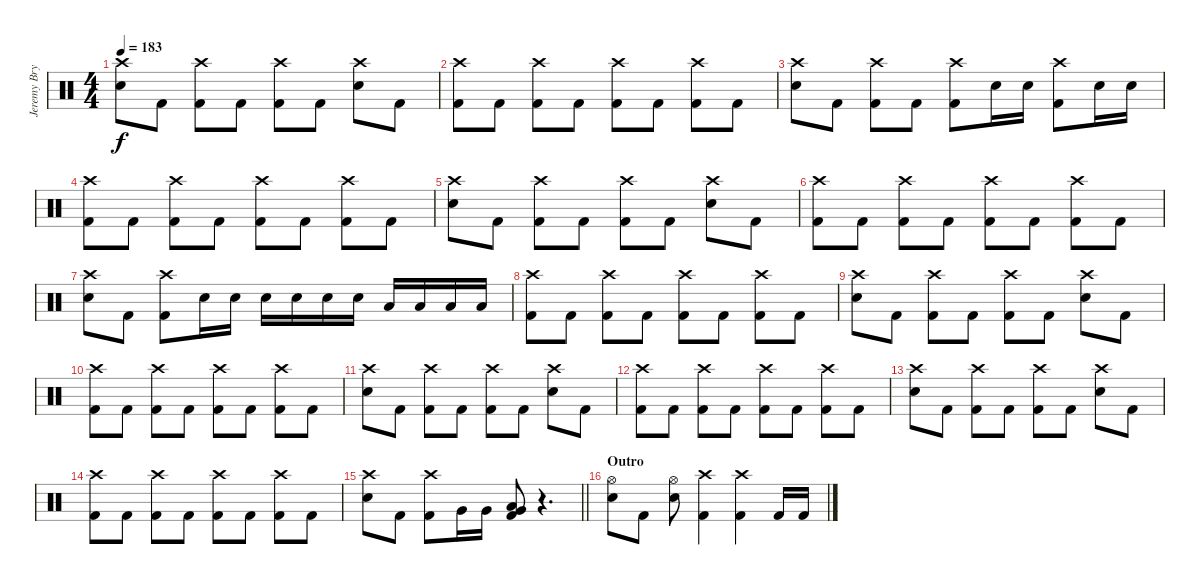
\track ("Jeremy Bryan - Drums" "Jeremy Bry") {instrument percussion}
\staff {score}
\articulation defaults
\ts (4 4)
\tempo 183
\clef neutral
\ks c
("Crash high (hit)" "Electric Snare (hit)").8{dy f} "Kick (hit) 2".8 ("Crash high (hit)" "Kick (hit) 2").8 "Kick (hit) 2".8 ("Crash high (hit)" "Kick (hit) 2").8 "Kick (hit) 2".8 ("Crash high (hit)" "Electric Snare (hit)").8 "Kick (hit) 2".8 |
("Crash high (hit)" "Kick (hit) 2").8 "Kick (hit) 2".8 ("Crash high (hit)" "Kick (hit) 2").8 "Kick (hit) 2".8 ("Crash high (hit)" "Kick (hit) 2").8 "Kick (hit) 2".8 ("Crash high (hit)" "Kick (hit) 2").8 "Kick (hit) 2".8 |
("Crash high (hit)" "Electric Snare (hit)").8 "Kick (hit) 2".8 ("Crash high (hit)" "Kick (hit) 2").8 "Kick (hit) 2".8 ("Crash high (hit)" "Kick (hit) 2").8 "Electric Snare (hit)".16 "Electric Snare (hit)".16 ("Crash high (hit)" "Kick (hit) 2").8 "Electric Snare (hit)".16 "Electric Snare (hit)".16 |
("Crash high (hit)" "Kick (hit) 2").8 "Kick (hit) 2".8 ("Crash high (hit)" "Kick (hit) 2").8 "Kick (hit) 2".8 ("Crash high (hit)" "Kick (hit) 2").8 "Kick (hit) 2".8 ("Crash high (hit)" "Kick (hit) 2").8 "Kick (hit) 2".8 |
("Crash high (hit)" "Electric Snare (hit)").8 "Kick (hit) 2".8 ("Crash high (hit)" "Kick (hit) 2").8 "Kick (hit) 2".8 ("Crash high (hit)" "Kick (hit) 2").8 "Kick (hit) 2".8 ("Crash high (hit)" "Electric Snare (hit)").8 "Kick (hit) 2".8 |
("Crash high (hit)" "Kick (hit) 2").8 "Kick (hit) 2".8 ("Crash high (hit)" "Kick (hit) 2").8 "Kick (hit) 2".8 ("Crash high (hit)" "Kick (hit) 2").8 "Kick (hit) 2".8 ("Crash high (hit)" "Kick (hit) 2").8 "Kick (hit) 2".8 |
("Crash high (hit)" "Electric Snare (hit)").8 "Kick (hit) 2".8 ("Crash high (hit)" "Kick (hit) 2").8 "Electric Snare (hit)".16 "Electric Snare (hit)".16 "Electric Snare (hit)".16 "Electric Snare (hit)".16 "Electric Snare (hit)".16 "Electric Snare (hit)".16 "Low Tom (hit)".16 "Low Tom (hit)".16 "Low Tom (hit)".16 "Low Tom (hit)".16 |
("Crash high (hit)" "Kick (hit) 2").8 "Kick (hit) 2".8 ("Crash high (hit)" "Kick (hit) 2").8 "Kick (hit) 2".8 ("Crash high (hit)" "Kick (hit) 2").8 "Kick (hit) 2".8 ("Crash high (hit)" "Kick (hit) 2").8 "Kick (hit) 2".8 |
("Crash high (hit)" "Electric Snare (hit)").8 "Kick (hit) 2".8 ("Crash high (hit)" "Kick (hit) 2").8 "Kick (hit) 2".8 ("Crash high (hit)" "Kick (hit) 2").8 "Kick (hit) 2".8 ("Crash high (hit)" "Electric Snare (hit)").8 "Kick (hit) 2".8 |
("Crash high (hit)" "Kick (hit) 2").8 "Kick (hit) 2".8 ("Crash high (hit)" "Kick (hit) 2").8 "Kick (hit) 2".8 ("Crash high (hit)" "Kick (hit) 2").8 "Kick (hit) 2".8 ("Crash high (hit)" "Kick (hit) 2").8 "Kick (hit) 2".8 |
("Crash high (hit)" "Electric Snare (hit)").8 "Kick (hit) 2".8 ("Crash high (hit)" "Kick (hit) 2").8 "Kick (hit) 2".8 ("Crash high (hit)" "Kick (hit) 2").8 "Kick (hit) 2".8 ("Crash high (hit)" "Electric Snare (hit)").8 "Kick (hit) 2".8 |
("Crash high (hit)" "Kick (hit) 2").8 "Kick (hit) 2".8 ("Crash high (hit)" "Kick (hit) 2").8 "Kick (hit) 2".8 ("Crash high (hit)" "Kick (hit) 2").8 "Kick (hit) 2".8 ("Crash high (hit)" "Kick (hit) 2").8 "Kick (hit) 2".8 |
("Crash high (hit)" "Electric Snare (hit)").8 "Kick (hit) 2".8 ("Crash high (hit)" "Kick (hit) 2").8 "Kick (hit) 2".8 ("Crash high (hit)" "Kick (hit) 2").8 "Kick (hit) 2".8 ("Crash high (hit)" "Electric Snare (hit)").8 "Kick (hit) 2".8 |
("Crash high (hit)" "Kick (hit) 2").8 "Kick (hit) 2".8 ("Crash high (hit)" "Kick (hit) 2").8 "Kick (hit) 2".8 ("Crash high (hit)" "Kick (hit) 2").8 "Kick (hit) 2".8 ("Crash high (hit)" "Kick (hit) 2").8 "Kick (hit) 2".8 |
\barLineRight lightlight
("Crash high (hit)" "Electric Snare (hit)").8 "Kick (hit) 2".8 ("Crash high (hit)" "Kick (hit) 2").8 "Very Low Tom (hit)".16 "Very Low Tom (hit)".16 ("Very Low Tom (hit)" "Low Floor Tom (hit)" "Kick (hit) 2").8 r.4{d} |
\section ("" "Outro")
("Hi-Hat (open)" "Electric Snare (hit)").8 "Kick (hit) 2".8 ("Hi-Hat (open)" "Electric Snare (hit)").8 ("Crash high (hit)" "Kick (hit) 2").4 ("Crash high (hit)" "Kick (hit) 2").4 "Kick (hit) 2".16 "Kick (hit) 2".16
